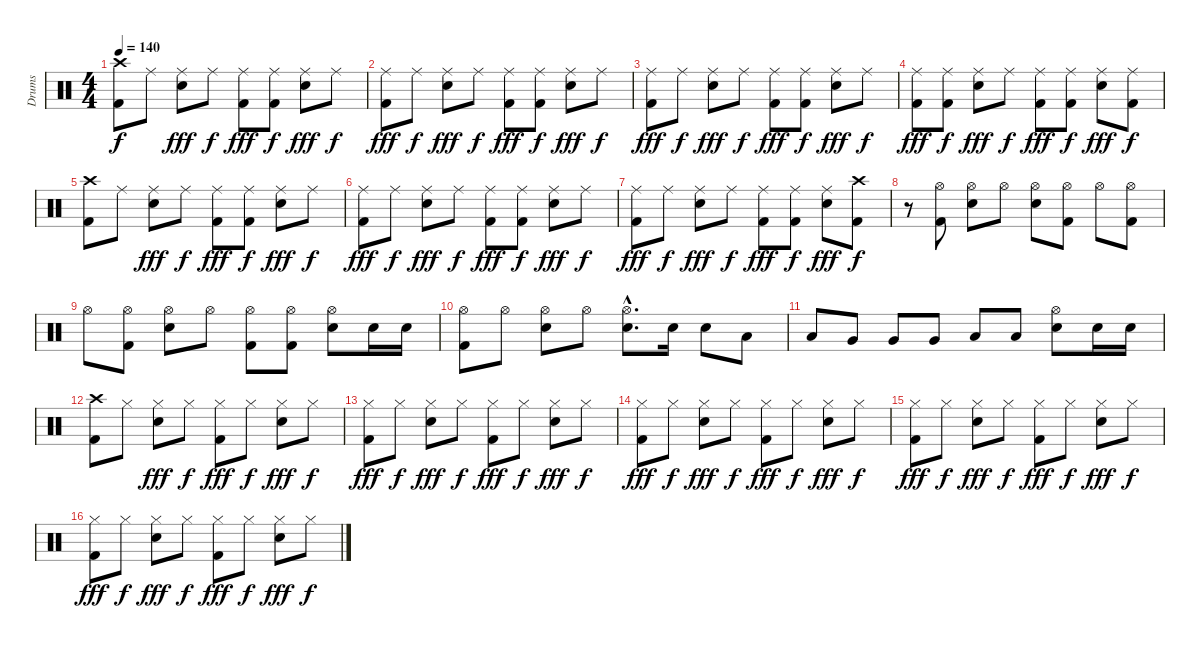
\track ("Drums" "Drums") {instrument percussion}
\staff {score}
\articulation defaults
\ts (4 4)
\tempo 140
\clef neutral
\ks c
("Crash high (hit)" "Kick (hit) 2").8{dy f} "Ride (middle)".8 ("Ride (middle)" "Snare (hit) 2").8{dy fff} "Ride (middle)".8{dy f} ("Ride (middle)" "Kick (hit) 2").8{dy fff} ("Ride (middle)" "Kick (hit) 2").8{dy f} ("Ride (middle)" "Snare (hit) 2").8{dy fff} "Ride (middle)".8{dy f} |
("Ride (middle)" "Kick (hit) 2").8{dy fff} "Ride (middle)".8{dy f} ("Ride (middle)" "Snare (hit) 2").8{dy fff} "Ride (middle)".8{dy f} ("Ride (middle)" "Kick (hit) 2").8{dy fff} ("Ride (middle)" "Kick (hit) 2").8{dy f} ("Ride (middle)" "Snare (hit) 2").8{dy fff} "Ride (middle)".8{dy f} |
("Ride (middle)" "Kick (hit) 2").8{dy fff} "Ride (middle)".8{dy f} ("Ride (middle)" "Snare (hit) 2").8{dy fff} "Ride (middle)".8{dy f} ("Ride (middle)" "Kick (hit) 2").8{dy fff} ("Ride (middle)" "Kick (hit) 2").8{dy f} ("Ride (middle)" "Snare (hit) 2").8{dy fff} "Ride (middle)".8{dy f} |
("Ride (middle)" "Kick (hit) 2").8{dy fff} ("Ride (middle)" "Kick (hit) 2").8{dy f} ("Ride (middle)" "Snare (hit) 2").8{dy fff} "Ride (middle)".8{dy f} ("Ride (middle)" "Kick (hit) 2").8{dy fff} ("Ride (middle)" "Kick (hit) 2").8{dy f} ("Ride (middle)" "Snare (hit) 2").8{dy fff} ("Ride (middle)" "Kick (hit) 2").8{dy f} |
("Crash high (hit)" "Kick (hit) 2").8 "Ride (middle)".8 ("Ride (middle)" "Snare (hit) 2").8{dy fff} "Ride (middle)".8{dy f} ("Ride (middle)" "Kick (hit) 2").8{dy fff} ("Ride (middle)" "Kick (hit) 2").8{dy f} ("Ride (middle)" "Snare (hit) 2").8{dy fff} "Ride (middle)".8{dy f} |
("Ride (middle)" "Kick (hit) 2").8{dy fff} "Ride (middle)".8{dy f} ("Ride (middle)" "Snare (hit) 2").8{dy fff} "Ride (middle)".8{dy f} ("Ride (middle)" "Kick (hit) 2").8{dy fff} ("Ride (middle)" "Kick (hit) 2").8{dy f} ("Ride (middle)" "Snare (hit) 2").8{dy fff} "Ride (middle)".8{dy f} |
("Ride (middle)" "Kick (hit) 2").8{dy fff} "Ride (middle)".8{dy f} ("Ride (middle)" "Snare (hit) 2").8{dy fff} "Ride (middle)".8{dy f} ("Ride (middle)" "Kick (hit) 2").8{dy fff} ("Ride (middle)" "Kick (hit) 2").8{dy f} ("Ride (middle)" "Snare (hit) 2").8{dy fff} ("Crash high (hit)" "Kick (hit) 2").8{dy f} |
r.8 ("Hi-Hat (open)" "Kick (hit) 2").8 ("Hi-Hat (open)" "Snare (hit) 2").8 "Hi-Hat (open)".8 ("Hi-Hat (open)" "Snare (hit) 2").8 ("Hi-Hat (open)" "Kick (hit) 2").8 "Hi-Hat (open)".8 ("Hi-Hat (open)" "Kick (hit) 2").8 |
"Hi-Hat (open)".8 ("Hi-Hat (open)" "Kick (hit) 2").8 ("Hi-Hat (open)" "Snare (hit) 2").8 "Hi-Hat (open)".8 ("Hi-Hat (open)" "Kick (hit) 2").8 ("Hi-Hat (open)" "Kick (hit) 2").8 ("Hi-Hat (open)" "Snare (hit) 2").8 "Snare (hit) 2".16 "Snare (hit) 2".16 |
("Hi-Hat (open)" "Kick (hit) 2").8 "Hi-Hat (open)".8 ("Hi-Hat (open)" "Snare (hit) 2").8 "Hi-Hat (open)".8 ("Hi-Hat (open)"{hac} "Snare (hit) 2"{hac}).8{d} "Snare (hit) 2".16 "Snare (hit) 2".8 "Low Tom (hit)".8 |
"Low Tom (hit)".8 "Very Low Tom (hit)".8 "Very Low Tom (hit)".8 "Very Low Tom (hit)".8 "Low Floor Tom (hit)".8 "Low Floor Tom (hit)".8 ("Hi-Hat (open)" "Snare (hit) 2").8 "Snare (hit) 2".16 "Snare (hit) 2".16 |
("Crash high (hit)" "Kick (hit) 2").8 "Hi-Hat (closed)".8 ("Hi-Hat (closed)" "Snare (hit) 2").8{dy fff} "Hi-Hat (closed)".8{dy f} ("Hi-Hat (closed)" "Kick (hit) 2").8{dy fff} "Hi-Hat (closed)".8{dy f} ("Hi-Hat (closed)" "Snare (hit) 2").8{dy fff} "Hi-Hat (closed)".8{dy f} |
("Hi-Hat (closed)" "Kick (hit) 2").8{dy fff} "Hi-Hat (closed)".8{dy f} ("Hi-Hat (closed)" "Snare (hit) 2").8{dy fff} "Hi-Hat (closed)".8{dy f} ("Hi-Hat (closed)" "Kick (hit) 2").8{dy fff} "Hi-Hat (closed)".8{dy f} ("Hi-Hat (closed)" "Snare (hit) 2").8{dy fff} "Hi-Hat (closed)".8{dy f} |
("Hi-Hat (closed)" "Kick (hit) 2").8{dy fff} "Hi-Hat (closed)".8{dy f} ("Hi-Hat (closed)" "Snare (hit) 2").8{dy fff} "Hi-Hat (closed)".8{dy f} ("Hi-Hat (closed)" "Kick (hit) 2").8{dy fff} "Hi-Hat (closed)".8{dy f} ("Hi-Hat (closed)" "Snare (hit) 2").8{dy fff} "Hi-Hat (closed)".8{dy f} |
("Hi-Hat (closed)" "Kick (hit) 2").8{dy fff} "Hi-Hat (closed)".8{dy f} ("Hi-Hat (closed)" "Snare (hit) 2").8{dy fff} "Hi-Hat (closed)".8{dy f} ("Hi-Hat (closed)" "Kick (hit) 2").8{dy fff} "Hi-Hat (closed)".8{dy f} ("Hi-Hat (closed)" "Snare (hit) 2").8{dy fff} "Hi-Hat (closed)".8{dy f} |
("Hi-Hat (closed)" "Kick (hit) 2").8{dy fff} "Hi-Hat (closed)".8{dy f} ("Hi-Hat (closed)" "Snare (hit) 2").8{dy fff} "Hi-Hat (closed)".8{dy f} ("Hi-Hat (closed)" "Kick (hit) 2").8{dy fff} "Hi-Hat (closed)".8{dy f} ("Hi-Hat (closed)" "Snare (hit) 2").8{dy fff} "Hi-Hat (closed)".8{dy f}
